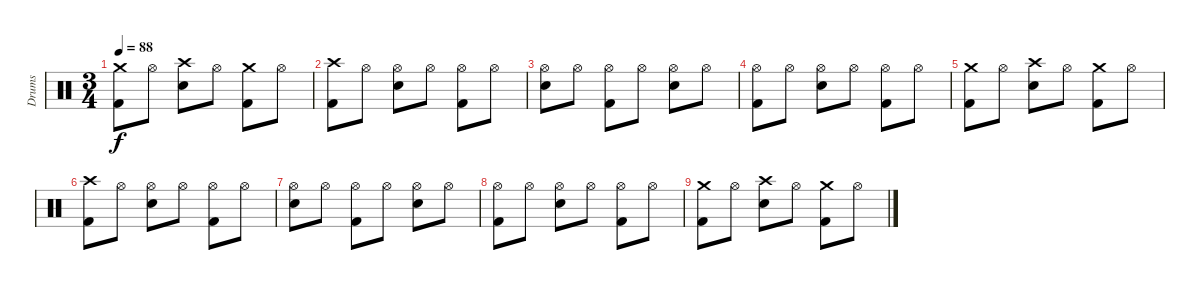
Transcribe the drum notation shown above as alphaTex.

\track ("Drums" "Drums") {instrument percussion}
\staff {score}
\articulation defaults
\ts (3 4)
\tempo 88
\clef neutral
\ks c
("Crash medium (hit)" "Kick (hit) 2").8{dy f} "Hi-Hat (open)".8 ("Crash high (hit)" "Snare (hit) 2").8 "Hi-Hat (open)".8 ("Crash medium (hit)" "Kick (hit) 2").8 "Hi-Hat (open)".8 |
("Crash high (hit)" "Kick (hit) 2").8 "Hi-Hat (open)".8 ("Hi-Hat (open)" "Snare (hit) 2").8 "Hi-Hat (open)".8 ("Hi-Hat (open)" "Kick (hit) 2").8 "Hi-Hat (open)".8 |
("Hi-Hat (open)" "Snare (hit) 2").8 "Hi-Hat (open)".8 ("Hi-Hat (open)" "Kick (hit) 2").8 "Hi-Hat (open)".8 ("Hi-Hat (open)" "Snare (hit) 2").8 "Hi-Hat (open)".8 |
("Hi-Hat (open)" "Kick (hit) 2").8 "Hi-Hat (open)".8 ("Hi-Hat (open)" "Snare (hit) 2").8 "Hi-Hat (open)".8 ("Hi-Hat (open)" "Kick (hit) 2").8 "Hi-Hat (open)".8 |
("Crash medium (hit)" "Kick (hit) 2").8 "Hi-Hat (open)".8 ("Crash high (hit)" "Snare (hit) 2").8 "Hi-Hat (open)".8 ("Crash medium (hit)" "Kick (hit) 2").8 "Hi-Hat (open)".8 |
("Crash high (hit)" "Kick (hit) 2").8 "Hi-Hat (open)".8 ("Hi-Hat (open)" "Snare (hit) 2").8 "Hi-Hat (open)".8 ("Hi-Hat (open)" "Kick (hit) 2").8 "Hi-Hat (open)".8 |
("Hi-Hat (open)" "Snare (hit) 2").8 "Hi-Hat (open)".8 ("Hi-Hat (open)" "Kick (hit) 2").8 "Hi-Hat (open)".8 ("Hi-Hat (open)" "Snare (hit) 2").8 "Hi-Hat (open)".8 |
("Hi-Hat (open)" "Kick (hit) 2").8 "Hi-Hat (open)".8 ("Hi-Hat (open)" "Snare (hit) 2").8 "Hi-Hat (open)".8 ("Hi-Hat (open)" "Kick (hit) 2").8 "Hi-Hat (open)".8 |
("Crash medium (hit)" "Kick (hit) 2").8 "Hi-Hat (open)".8 ("Crash high (hit)" "Snare (hit) 2").8 "Hi-Hat (open)".8 ("Crash medium (hit)" "Kick (hit) 2").8 "Hi-Hat (open)".8
